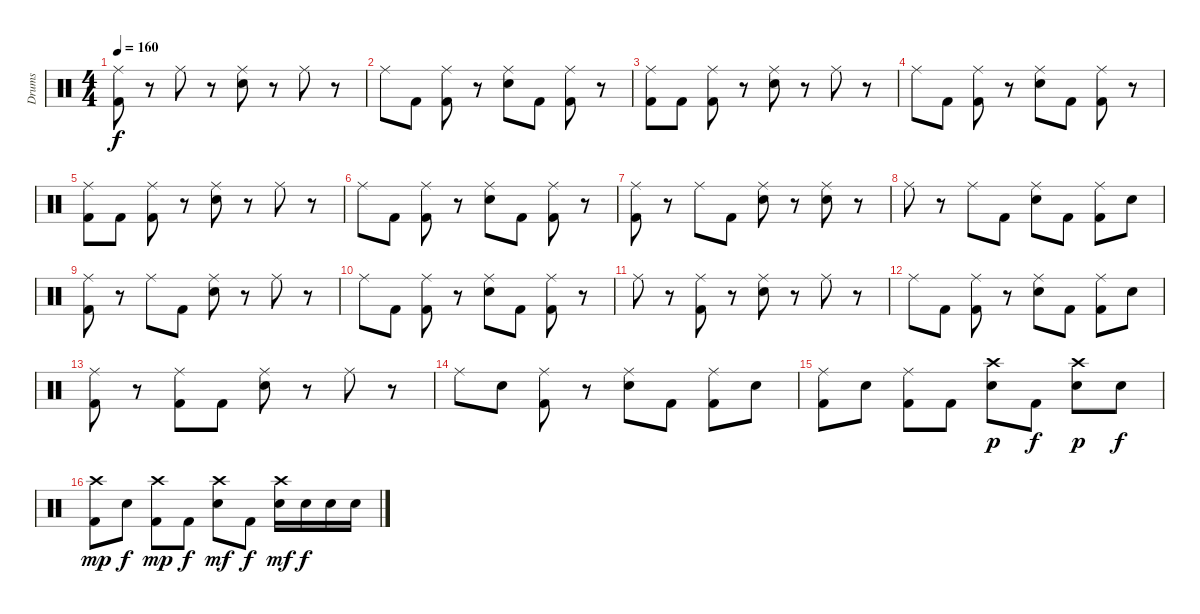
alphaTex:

\track ("Drums" "Drums") {instrument percussion}
\staff {score}
\articulation defaults
\ts (4 4)
\tempo 160
\clef neutral
\ks c
("Ride (middle)" "Kick (hit) 2").8{dy f} r.8 "Ride (middle)".8 r.8 ("Ride (middle)" "Snare (hit) 2").8 r.8 "Ride (middle)".8 r.8 |
"Ride (middle)".8 "Kick (hit) 2".8 ("Ride (middle)" "Kick (hit) 2").8 r.8 ("Ride (middle)" "Snare (hit) 2").8 "Kick (hit) 2".8 ("Ride (middle)" "Kick (hit) 2").8 r.8 |
("Ride (middle)" "Kick (hit) 2").8 "Kick (hit) 2".8 ("Ride (middle)" "Kick (hit) 2").8 r.8 ("Ride (middle)" "Snare (hit) 2").8 r.8 "Ride (middle)".8 r.8 |
"Ride (middle)".8 "Kick (hit) 2".8 ("Ride (middle)" "Kick (hit) 2").8 r.8 ("Ride (middle)" "Snare (hit) 2").8 "Kick (hit) 2".8 ("Ride (middle)" "Kick (hit) 2").8 r.8 |
("Ride (middle)" "Kick (hit) 2").8 "Kick (hit) 2".8 ("Ride (middle)" "Kick (hit) 2").8 r.8 ("Ride (middle)" "Snare (hit) 2").8 r.8 "Ride (middle)".8 r.8 |
"Ride (middle)".8 "Kick (hit) 2".8 ("Ride (middle)" "Kick (hit) 2").8 r.8 ("Ride (middle)" "Snare (hit) 2").8 "Kick (hit) 2".8 ("Ride (middle)" "Kick (hit) 2").8 r.8 |
("Ride (middle)" "Kick (hit) 2").8 r.8 "Ride (middle)".8 "Kick (hit) 2".8 ("Ride (middle)" "Snare (hit) 2").8 r.8 ("Ride (middle)" "Snare (hit) 2").8 r.8 |
"Ride (middle)".8 r.8 "Ride (middle)".8 "Kick (hit) 2".8 ("Ride (middle)" "Snare (hit) 2").8 "Kick (hit) 2".8 ("Ride (middle)" "Kick (hit) 2").8 "Snare (hit) 2".8 |
("Ride (middle)" "Kick (hit) 2").8 r.8 "Ride (middle)".8 "Kick (hit) 2".8 ("Ride (middle)" "Snare (hit) 2").8 r.8 "Ride (middle)".8 r.8 |
"Ride (middle)".8 "Kick (hit) 2".8 ("Ride (middle)" "Kick (hit) 2").8 r.8 ("Ride (middle)" "Snare (hit) 2").8 "Kick (hit) 2".8 ("Ride (middle)" "Kick (hit) 2").8 r.8 |
"Ride (middle)".8 r.8 ("Ride (middle)" "Kick (hit) 2").8 r.8 ("Ride (middle)" "Snare (hit) 2").8 r.8 "Ride (middle)".8 r.8 |
"Ride (middle)".8 "Kick (hit) 2".8 ("Ride (middle)" "Kick (hit) 2").8 r.8 ("Ride (middle)" "Snare (hit) 2").8 "Kick (hit) 2".8 ("Ride (middle)" "Kick (hit) 2").8 "Snare (hit) 2".8 |
("Ride (middle)" "Kick (hit) 2").8 r.8 ("Ride (middle)" "Kick (hit) 2").8 "Kick (hit) 2".8 ("Ride (middle)" "Snare (hit) 2").8 r.8 "Ride (middle)".8 r.8 |
"Ride (middle)".8 "Snare (hit) 2".8 ("Ride (middle)" "Kick (hit) 2").8 r.8 ("Ride (middle)" "Snare (hit) 2").8 "Kick (hit) 2".8 ("Ride (middle)" "Kick (hit) 2").8 "Snare (hit) 2".8 |
("Ride (middle)" "Kick (hit) 2").8 "Snare (hit) 2".8 ("Ride (middle)" "Kick (hit) 2").8 "Kick (hit) 2".8 ("Crash high (hit)" "Snare (hit) 2").8{dy p} "Kick (hit) 2".8{dy f} ("Crash high (hit)" "Snare (hit) 2").8{dy p} "Snare (hit) 2".8{dy f} |
("Crash high (hit)" "Kick (hit) 2").8{dy mp} "Snare (hit) 2".8{dy f} ("Crash high (hit)" "Kick (hit) 2").8{dy mp} "Kick (hit) 2".8{dy f} ("Crash high (hit)" "Snare (hit) 2").8{dy mf} "Kick (hit) 2".8{dy f} ("Crash high (hit)" "Snare (hit) 2").16{dy mf} "Snare (hit) 2".16{dy f} "Snare (hit) 2".16 "Snare (hit) 2".16
